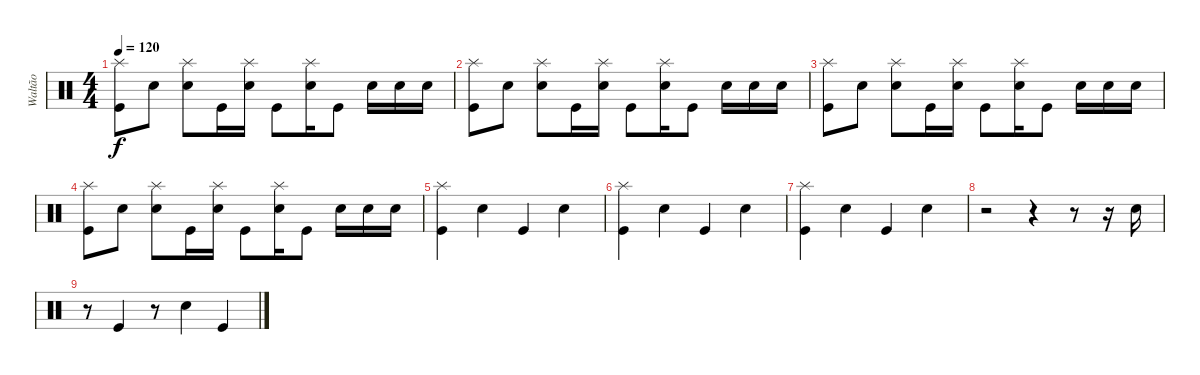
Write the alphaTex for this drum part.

\track ("Waltão" "Waltão") {instrument percussion}
\staff {score}
\articulation defaults
\ts (4 4)
\tempo 120
\clef neutral
\ks c
("Splash (hit)" "Kick (hit)").8{dy f} "Electric Snare (hit)".8 ("Splash (hit)" "Electric Snare (hit)").8 "Kick (hit)".16 ("Splash (hit)" "Electric Snare (hit)").16 "Kick (hit)".8 ("Splash (hit)" "Electric Snare (hit)").16 "Kick (hit)".8 "Electric Snare (hit)".16 "Electric Snare (hit)".16 "Electric Snare (hit)".16 |
("Splash (hit)" "Kick (hit)").8 "Electric Snare (hit)".8 ("Splash (hit)" "Electric Snare (hit)").8 "Kick (hit)".16 ("Splash (hit)" "Electric Snare (hit)").16 "Kick (hit)".8 ("Splash (hit)" "Electric Snare (hit)").16 "Kick (hit)".8 "Electric Snare (hit)".16 "Electric Snare (hit)".16 "Electric Snare (hit)".16 |
("Splash (hit)" "Kick (hit)").8 "Electric Snare (hit)".8 ("Splash (hit)" "Electric Snare (hit)").8 "Kick (hit)".16 ("Splash (hit)" "Electric Snare (hit)").16 "Kick (hit)".8 ("Splash (hit)" "Electric Snare (hit)").16 "Kick (hit)".8 "Electric Snare (hit)".16 "Electric Snare (hit)".16 "Electric Snare (hit)".16 |
("Splash (hit)" "Kick (hit)").8 "Electric Snare (hit)".8 ("Splash (hit)" "Electric Snare (hit)").8 "Kick (hit)".16 ("Splash (hit)" "Electric Snare (hit)").16 "Kick (hit)".8 ("Splash (hit)" "Electric Snare (hit)").16 "Kick (hit)".8 "Electric Snare (hit)".16 "Electric Snare (hit)".16 "Electric Snare (hit)".16 |
("Splash (hit)" "Kick (hit)").4 "Electric Snare (hit)".4 "Kick (hit)".4 "Electric Snare (hit)".4 |
("Splash (hit)" "Kick (hit)").4 "Electric Snare (hit)".4 "Kick (hit)".4 "Electric Snare (hit)".4 |
("Splash (hit)" "Kick (hit)").4 "Electric Snare (hit)".4 "Kick (hit)".4 "Electric Snare (hit)".4 |
r.2 r.4 r.8 r.16 "Electric Snare (hit)".16 |
r.8 "Kick (hit)".4 r.8 "Electric Snare (hit)".4 "Kick (hit)".4
